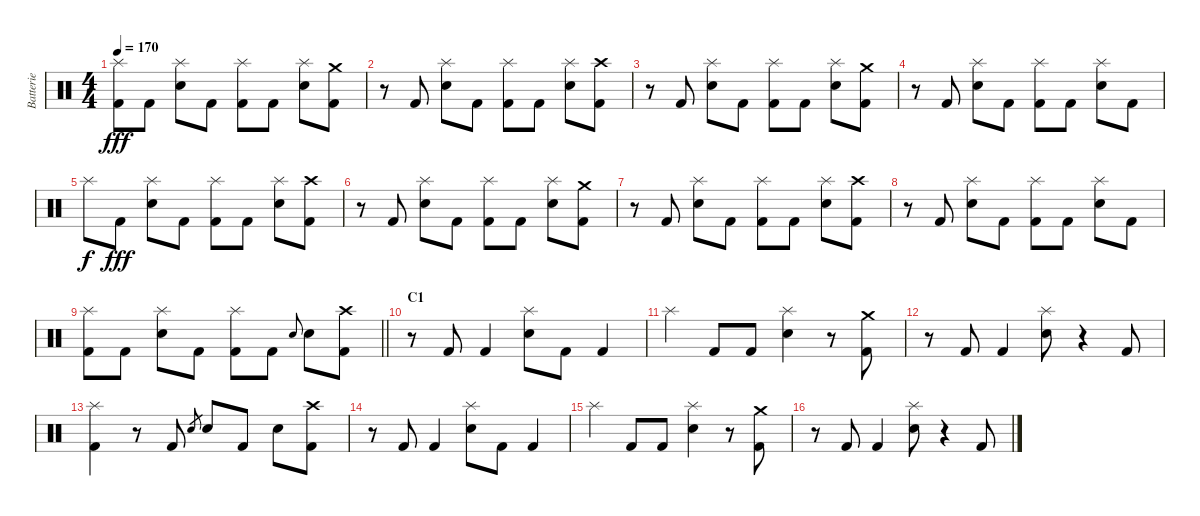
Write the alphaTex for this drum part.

\track ("Batterie" "Batterie") {instrument percussion}
\staff {score}
\articulation defaults
\ts (4 4)
\tempo 170
\clef neutral
\ks c
("Splash (hit)" "Kick (hit) 2").8{dy fff} "Kick (hit) 2".8 ("Splash (hit)" "Electric Snare (hit)").8 "Kick (hit) 2".8 ("Splash (hit)" "Kick (hit) 2").8 "Kick (hit) 2".8 ("Splash (hit)" "Electric Snare (hit)").8 ("Crash medium (hit)" "Kick (hit) 2").8 |
r.8 "Kick (hit) 2".8 ("Splash (hit)" "Electric Snare (hit)").8 "Kick (hit) 2".8 ("Splash (hit)" "Kick (hit) 2").8 "Kick (hit) 2".8 ("Splash (hit)" "Electric Snare (hit)").8 ("Crash high (hit)" "Kick (hit) 2").8 |
r.8 "Kick (hit) 2".8 ("Splash (hit)" "Electric Snare (hit)").8 "Kick (hit) 2".8 ("Splash (hit)" "Kick (hit) 2").8 "Kick (hit) 2".8 ("Splash (hit)" "Electric Snare (hit)").8 ("Crash medium (hit)" "Kick (hit) 2").8 |
r.8 "Kick (hit) 2".8 ("Splash (hit)" "Electric Snare (hit)").8 "Kick (hit) 2".8 ("Splash (hit)" "Kick (hit) 2").8 "Kick (hit) 2".8 ("Splash (hit)" "Electric Snare (hit)").8 "Kick (hit) 2".8 |
"Splash (hit)".8{dy f} "Kick (hit) 2".8{dy fff} ("Splash (hit)" "Electric Snare (hit)").8 "Kick (hit) 2".8 ("Splash (hit)" "Kick (hit) 2").8 "Kick (hit) 2".8 ("Splash (hit)" "Electric Snare (hit)").8 ("Crash high (hit)" "Kick (hit) 2").8 |
r.8 "Kick (hit) 2".8 ("Splash (hit)" "Electric Snare (hit)").8 "Kick (hit) 2".8 ("Splash (hit)" "Kick (hit) 2").8 "Kick (hit) 2".8 ("Splash (hit)" "Electric Snare (hit)").8 ("Crash medium (hit)" "Kick (hit) 2").8 |
r.8 "Kick (hit) 2".8 ("Splash (hit)" "Electric Snare (hit)").8 "Kick (hit) 2".8 ("Splash (hit)" "Kick (hit) 2").8 "Kick (hit) 2".8 ("Splash (hit)" "Electric Snare (hit)").8 ("Crash high (hit)" "Kick (hit) 2").8 |
r.8 "Kick (hit) 2".8 ("Splash (hit)" "Electric Snare (hit)").8 "Kick (hit) 2".8 ("Splash (hit)" "Kick (hit) 2").8 "Kick (hit) 2".8 ("Splash (hit)" "Electric Snare (hit)").8 "Kick (hit) 2".8 |
\barLineRight lightlight
("Splash (hit)" "Kick (hit) 2").8 "Kick (hit) 2".8 ("Splash (hit)" "Electric Snare (hit)").8 "Kick (hit) 2".8 ("Splash (hit)" "Kick (hit) 2").8 "Kick (hit) 2".8 "Electric Snare (hit)".8{gr onbeat} "Electric Snare (hit)".8 ("Crash high (hit)" "Kick (hit) 2").8 |
\section ("" "C1")
r.8 "Kick (hit) 2".8 "Kick (hit) 2".4 ("Splash (hit)" "Electric Snare (hit)").8 "Kick (hit) 2".8 "Kick (hit) 2".4 |
"Splash (hit)".4 "Kick (hit) 2".8 "Kick (hit) 2".8 ("Splash (hit)" "Electric Snare (hit)").4 r.8 ("Crash medium (hit)" "Kick (hit) 2").8 |
r.8 "Kick (hit) 2".8 "Kick (hit) 2".4 ("Splash (hit)" "Electric Snare (hit)").8 r.4 "Kick (hit) 2".8 |
("Splash (hit)" "Kick (hit) 2").4 r.8 "Kick (hit) 2".8 "Electric Snare (hit)".8{gr} "Electric Snare (hit)".8 "Kick (hit) 2".8 "Electric Snare (hit)".8 ("Crash high (hit)" "Kick (hit) 2").8 |
r.8 "Kick (hit) 2".8 "Kick (hit) 2".4 ("Splash (hit)" "Electric Snare (hit)").8 "Kick (hit) 2".8 "Kick (hit) 2".4 |
"Splash (hit)".4 "Kick (hit) 2".8 "Kick (hit) 2".8 ("Splash (hit)" "Electric Snare (hit)").4 r.8 ("Crash medium (hit)" "Kick (hit) 2").8 |
r.8 "Kick (hit) 2".8 "Kick (hit) 2".4 ("Splash (hit)" "Electric Snare (hit)").8 r.4 "Kick (hit) 2".8
